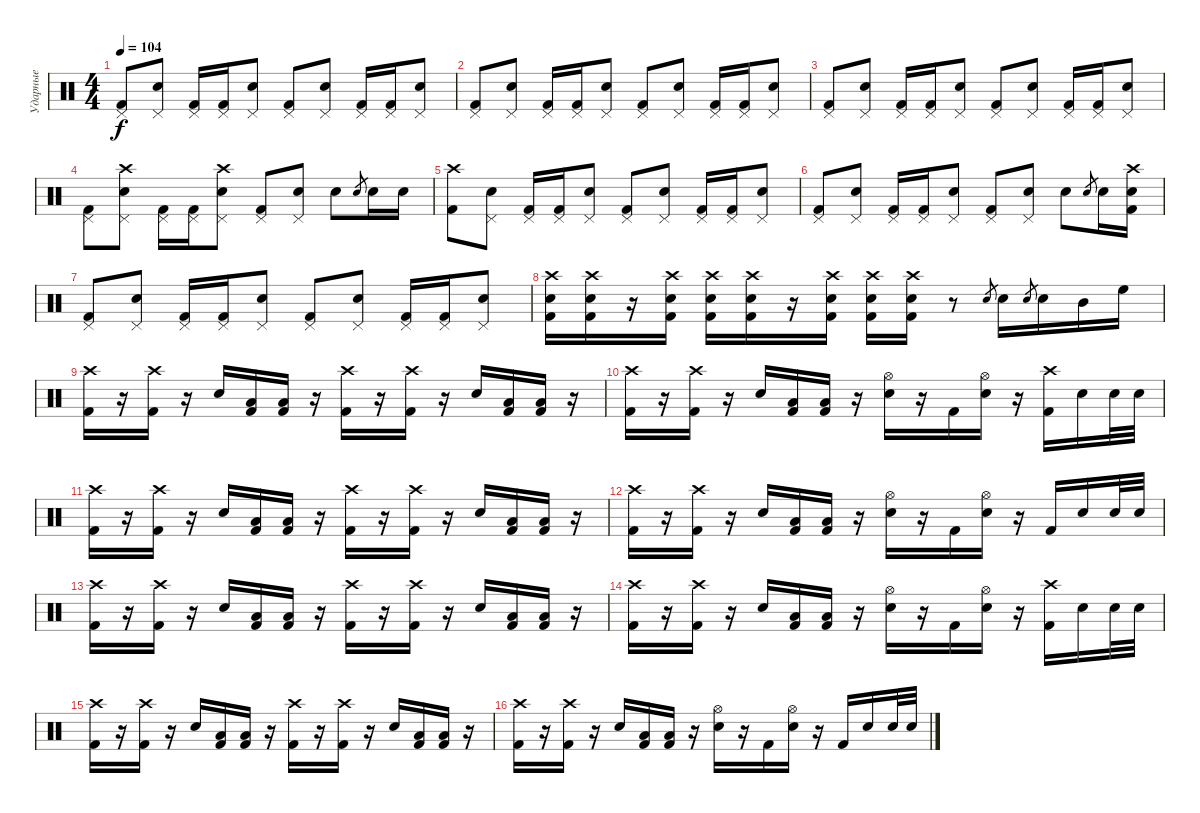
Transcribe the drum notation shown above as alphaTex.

\track ("Ударные" "Ударные") {instrument percussion}
\staff
\articulation defaults
\ts (4 4)
\tempo 104
\clef neutral
\ks c
("Pedal Hi-Hat (hit)" "Kick (hit) 2").8{dy f} ("Pedal Hi-Hat (hit)" "Electric Snare (hit)").8 ("Pedal Hi-Hat (hit)" "Kick (hit) 2").16 ("Pedal Hi-Hat (hit)" "Kick (hit) 2").16 ("Pedal Hi-Hat (hit)" "Electric Snare (hit)").8 ("Pedal Hi-Hat (hit)" "Kick (hit) 2").8 ("Pedal Hi-Hat (hit)" "Electric Snare (hit)").8 ("Pedal Hi-Hat (hit)" "Kick (hit) 2").16 ("Pedal Hi-Hat (hit)" "Kick (hit) 2").16 ("Pedal Hi-Hat (hit)" "Electric Snare (hit)").8 |
("Pedal Hi-Hat (hit)" "Kick (hit) 2").8 ("Pedal Hi-Hat (hit)" "Electric Snare (hit)").8 ("Pedal Hi-Hat (hit)" "Kick (hit) 2").16 ("Pedal Hi-Hat (hit)" "Kick (hit) 2").16 ("Pedal Hi-Hat (hit)" "Electric Snare (hit)").8 ("Pedal Hi-Hat (hit)" "Kick (hit) 2").8 ("Pedal Hi-Hat (hit)" "Electric Snare (hit)").8 ("Pedal Hi-Hat (hit)" "Kick (hit) 2").16 ("Pedal Hi-Hat (hit)" "Kick (hit) 2").16 ("Pedal Hi-Hat (hit)" "Electric Snare (hit)").8 |
("Pedal Hi-Hat (hit)" "Kick (hit) 2").8 ("Pedal Hi-Hat (hit)" "Electric Snare (hit)").8 ("Pedal Hi-Hat (hit)" "Kick (hit) 2").16 ("Pedal Hi-Hat (hit)" "Kick (hit) 2").16 ("Pedal Hi-Hat (hit)" "Electric Snare (hit)").8 ("Pedal Hi-Hat (hit)" "Kick (hit) 2").8 ("Pedal Hi-Hat (hit)" "Electric Snare (hit)").8 ("Pedal Hi-Hat (hit)" "Kick (hit) 2").16 ("Pedal Hi-Hat (hit)" "Kick (hit) 2").16 ("Pedal Hi-Hat (hit)" "Electric Snare (hit)").8 |
("Pedal Hi-Hat (hit)" "Kick (hit) 2").8 ("Pedal Hi-Hat (hit)" "Electric Snare (hit)" "Crash high (hit)").8 ("Pedal Hi-Hat (hit)" "Kick (hit) 2").16 ("Pedal Hi-Hat (hit)" "Kick (hit) 2").16 ("Pedal Hi-Hat (hit)" "Electric Snare (hit)" "Crash high (hit)").8 ("Pedal Hi-Hat (hit)" "Kick (hit) 2").8 ("Pedal Hi-Hat (hit)" "Electric Snare (hit)").8 "Electric Snare (hit)".8 "Electric Snare (hit)".8{gr} "Electric Snare (hit)".16 "Electric Snare (hit)".16 |
("Crash high (hit)" "Kick (hit) 2").8 ("Pedal Hi-Hat (hit)" "Electric Snare (hit)").8 ("Pedal Hi-Hat (hit)" "Kick (hit) 2").16 ("Pedal Hi-Hat (hit)" "Kick (hit) 2").16 ("Pedal Hi-Hat (hit)" "Electric Snare (hit)").8 ("Pedal Hi-Hat (hit)" "Kick (hit) 2").8 ("Pedal Hi-Hat (hit)" "Electric Snare (hit)").8 ("Pedal Hi-Hat (hit)" "Kick (hit) 2").16 ("Pedal Hi-Hat (hit)" "Kick (hit) 2").16 ("Pedal Hi-Hat (hit)" "Electric Snare (hit)").8 |
("Pedal Hi-Hat (hit)" "Kick (hit) 2").8 ("Pedal Hi-Hat (hit)" "Electric Snare (hit)").8 ("Pedal Hi-Hat (hit)" "Kick (hit) 2").16 ("Pedal Hi-Hat (hit)" "Kick (hit) 2").16 ("Pedal Hi-Hat (hit)" "Electric Snare (hit)").8 ("Pedal Hi-Hat (hit)" "Kick (hit) 2").8 ("Pedal Hi-Hat (hit)" "Electric Snare (hit)").8 "Electric Snare (hit)".8 "Electric Snare (hit)".8{gr} "Electric Snare (hit)".16 ("Crash high (hit)" "Electric Snare (hit)" "Kick (hit) 2").16 |
("Pedal Hi-Hat (hit)" "Kick (hit) 2").8 ("Pedal Hi-Hat (hit)" "Electric Snare (hit)").8 ("Pedal Hi-Hat (hit)" "Kick (hit) 2").16 ("Pedal Hi-Hat (hit)" "Kick (hit) 2").16 ("Pedal Hi-Hat (hit)" "Electric Snare (hit)").8 ("Pedal Hi-Hat (hit)" "Kick (hit) 2").8 ("Pedal Hi-Hat (hit)" "Electric Snare (hit)").8 ("Pedal Hi-Hat (hit)" "Kick (hit) 2").16 ("Pedal Hi-Hat (hit)" "Kick (hit) 2").16 ("Pedal Hi-Hat (hit)" "Electric Snare (hit)").8 |
("Crash high (hit)" "Electric Snare (hit)" "Kick (hit) 2").16 ("Crash high (hit)" "Electric Snare (hit)" "Kick (hit) 2").16 r.16 ("Crash high (hit)" "Electric Snare (hit)" "Kick (hit) 2").16 ("Crash high (hit)" "Electric Snare (hit)" "Kick (hit) 2").16 ("Crash high (hit)" "Electric Snare (hit)" "Kick (hit) 2").16 r.16 ("Crash high (hit)" "Kick (hit) 2" "Electric Snare (hit)").16 ("Crash high (hit)" "Kick (hit) 2" "Electric Snare (hit)").16 ("Crash high (hit)" "Kick (hit) 2" "Electric Snare (hit)").16 r.8 "Electric Snare (hit)".8{gr} "Electric Snare (hit)".16 "Electric Snare (hit)".8{gr} "Electric Snare (hit)".16 "Mid Tom (hit)".16 "High Floor Tom (hit)".16 |
("Crash high (hit)" "Kick (hit) 2").16 r.16 ("Crash high (hit)" "Kick (hit) 2").16 r.16 "Electric Snare (hit)".16 ("Low Tom (hit)" "Kick (hit) 2").16 ("Low Tom (hit)" "Kick (hit) 2").16 r.16 ("Crash high (hit)" "Kick (hit) 2").16 r.16 ("Crash high (hit)" "Kick (hit) 2").16 r.16 "Electric Snare (hit)".16 ("Low Tom (hit)" "Kick (hit) 2").16 ("Low Tom (hit)" "Kick (hit) 2").16 r.16 |
("Crash high (hit)" "Kick (hit) 2").16 r.16 ("Crash high (hit)" "Kick (hit) 2").16 r.16 "Electric Snare (hit)".16 ("Low Tom (hit)" "Kick (hit) 2").16 ("Low Tom (hit)" "Kick (hit) 2").16 r.16 ("Hi-Hat (open)" "Electric Snare (hit)").16 r.16 "Kick (hit) 2".16 ("Hi-Hat (open)" "Electric Snare (hit)").16 r.16 ("Crash high (hit)" "Kick (hit) 2").16 "Electric Snare (hit)".16 "Electric Snare (hit)".32 "Electric Snare (hit)".32 |
("Crash high (hit)" "Kick (hit) 2").16 r.16 ("Crash high (hit)" "Kick (hit) 2").16 r.16 "Electric Snare (hit)".16 ("Low Tom (hit)" "Kick (hit) 2").16 ("Low Tom (hit)" "Kick (hit) 2").16 r.16 ("Crash high (hit)" "Kick (hit) 2").16 r.16 ("Crash high (hit)" "Kick (hit) 2").16 r.16 "Electric Snare (hit)".16 ("Low Tom (hit)" "Kick (hit) 2").16 ("Low Tom (hit)" "Kick (hit) 2").16 r.16 |
("Crash high (hit)" "Kick (hit) 2").16 r.16 ("Crash high (hit)" "Kick (hit) 2").16 r.16 "Electric Snare (hit)".16 ("Low Tom (hit)" "Kick (hit) 2").16 ("Low Tom (hit)" "Kick (hit) 2").16 r.16 ("Hi-Hat (open)" "Electric Snare (hit)").16 r.16 "Kick (hit) 2".16 ("Hi-Hat (open)" "Electric Snare (hit)").16 r.16 "Kick (hit) 2".16 "Electric Snare (hit)".16 "Electric Snare (hit)".32 "Electric Snare (hit)".32 |
("Crash high (hit)" "Kick (hit) 2").16 r.16 ("Crash high (hit)" "Kick (hit) 2").16 r.16 "Electric Snare (hit)".16 ("Low Tom (hit)" "Kick (hit) 2").16 ("Low Tom (hit)" "Kick (hit) 2").16 r.16 ("Crash high (hit)" "Kick (hit) 2").16 r.16 ("Crash high (hit)" "Kick (hit) 2").16 r.16 "Electric Snare (hit)".16 ("Low Tom (hit)" "Kick (hit) 2").16 ("Low Tom (hit)" "Kick (hit) 2").16 r.16 |
("Crash high (hit)" "Kick (hit) 2").16 r.16 ("Crash high (hit)" "Kick (hit) 2").16 r.16 "Electric Snare (hit)".16 ("Low Tom (hit)" "Kick (hit) 2").16 ("Low Tom (hit)" "Kick (hit) 2").16 r.16 ("Hi-Hat (open)" "Electric Snare (hit)").16 r.16 "Kick (hit) 2".16 ("Hi-Hat (open)" "Electric Snare (hit)").16 r.16 ("Crash high (hit)" "Kick (hit) 2").16 "Electric Snare (hit)".16 "Electric Snare (hit)".32 "Electric Snare (hit)".32 |
("Crash high (hit)" "Kick (hit) 2").16 r.16 ("Crash high (hit)" "Kick (hit) 2").16 r.16 "Electric Snare (hit)".16 ("Low Tom (hit)" "Kick (hit) 2").16 ("Low Tom (hit)" "Kick (hit) 2").16 r.16 ("Crash high (hit)" "Kick (hit) 2").16 r.16 ("Crash high (hit)" "Kick (hit) 2").16 r.16 "Electric Snare (hit)".16 ("Low Tom (hit)" "Kick (hit) 2").16 ("Low Tom (hit)" "Kick (hit) 2").16 r.16 |
("Crash high (hit)" "Kick (hit) 2").16 r.16 ("Crash high (hit)" "Kick (hit) 2").16 r.16 "Electric Snare (hit)".16 ("Low Tom (hit)" "Kick (hit) 2").16 ("Low Tom (hit)" "Kick (hit) 2").16 r.16 ("Hi-Hat (open)" "Electric Snare (hit)").16 r.16 "Kick (hit) 2".16 ("Hi-Hat (open)" "Electric Snare (hit)").16 r.16 "Kick (hit) 2".16 "Electric Snare (hit)".16 "Electric Snare (hit)".32 "Electric Snare (hit)".32
